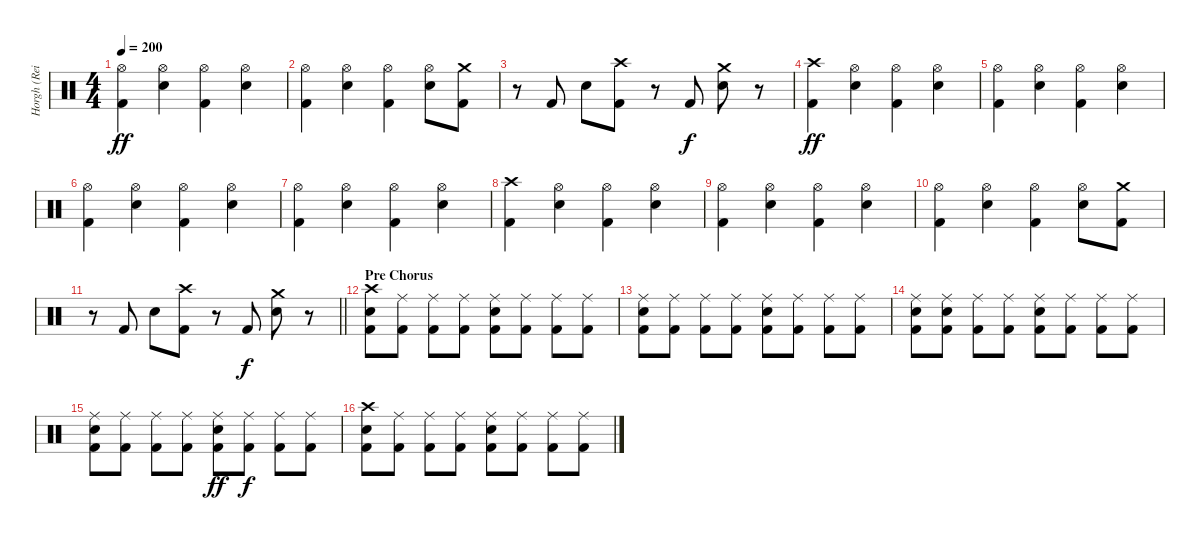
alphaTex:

\track ("Horgh (Reidar Horghagen)" "Horgh (Rei") {instrument percussion}
\staff {score}
\articulation defaults
\ts (4 4)
\tempo 200
\clef neutral
\ks c
("Hi-Hat (open)" "Kick (hit) 2").4{dy ff} ("Hi-Hat (open)" "Snare (hit) 2").4 ("Hi-Hat (open)" "Kick (hit) 2").4 ("Hi-Hat (open)" "Snare (hit) 2").4 |
("Hi-Hat (open)" "Kick (hit) 2").4 ("Hi-Hat (open)" "Snare (hit) 2").4 ("Hi-Hat (open)" "Kick (hit) 2").4 ("Hi-Hat (open)" "Snare (hit) 2").8 ("Crash medium (hit)" "Kick (hit) 2").8 |
r.8 "Kick (hit) 2".8 "Snare (hit) 2".8 ("Crash high (hit)" "Kick (hit) 2").8 r.8 "Kick (hit) 2".8{dy f} ("Crash medium (hit)" "Snare (hit) 2").8 r.8 |
("Crash high (hit)" "Kick (hit) 2").4{dy ff} ("Hi-Hat (open)" "Snare (hit) 2").4 ("Hi-Hat (open)" "Kick (hit) 2").4 ("Hi-Hat (open)" "Snare (hit) 2").4 |
("Hi-Hat (open)" "Kick (hit) 2").4 ("Hi-Hat (open)" "Snare (hit) 2").4 ("Hi-Hat (open)" "Kick (hit) 2").4 ("Hi-Hat (open)" "Snare (hit) 2").4 |
("Hi-Hat (open)" "Kick (hit) 2").4 ("Hi-Hat (open)" "Snare (hit) 2").4 ("Hi-Hat (open)" "Kick (hit) 2").4 ("Hi-Hat (open)" "Snare (hit) 2").4 |
("Hi-Hat (open)" "Kick (hit) 2").4 ("Hi-Hat (open)" "Snare (hit) 2").4 ("Hi-Hat (open)" "Kick (hit) 2").4 ("Hi-Hat (open)" "Snare (hit) 2").4 |
("Crash high (hit)" "Kick (hit) 2").4 ("Hi-Hat (open)" "Snare (hit) 2").4 ("Hi-Hat (open)" "Kick (hit) 2").4 ("Hi-Hat (open)" "Snare (hit) 2").4 |
("Hi-Hat (open)" "Kick (hit) 2").4 ("Hi-Hat (open)" "Snare (hit) 2").4 ("Hi-Hat (open)" "Kick (hit) 2").4 ("Hi-Hat (open)" "Snare (hit) 2").4 |
("Hi-Hat (open)" "Kick (hit) 2").4 ("Hi-Hat (open)" "Snare (hit) 2").4 ("Hi-Hat (open)" "Kick (hit) 2").4 ("Hi-Hat (open)" "Snare (hit) 2").8 ("Crash medium (hit)" "Kick (hit) 2").8 |
\barLineRight lightlight
r.8 "Kick (hit) 2".8 "Snare (hit) 2".8 ("Crash high (hit)" "Kick (hit) 2").8 r.8 "Kick (hit) 2".8{dy f} ("Crash medium (hit)" "Snare (hit) 2").8 r.8 |
\section ("" "Pre Chorus")
("Crash high (hit)" "Snare (hit) 2" "Kick (hit) 2").8 ("Ride (middle)" "Kick (hit) 2").8 ("Ride (middle)" "Kick (hit) 2").8 ("Ride (middle)" "Kick (hit) 2").8 ("Ride (middle)" "Snare (hit) 2" "Kick (hit) 2").8 ("Ride (middle)" "Kick (hit) 2").8 ("Ride (middle)" "Kick (hit) 2").8 ("Ride (middle)" "Kick (hit) 2").8 |
("Ride (middle)" "Snare (hit) 2" "Kick (hit) 2").8 ("Ride (middle)" "Kick (hit) 2").8 ("Ride (middle)" "Kick (hit) 2").8 ("Ride (middle)" "Kick (hit) 2").8 ("Ride (middle)" "Snare (hit) 2" "Kick (hit) 2").8 ("Ride (middle)" "Kick (hit) 2").8 ("Ride (middle)" "Kick (hit) 2").8 ("Ride (middle)" "Kick (hit) 2").8 |
("Ride (middle)" "Snare (hit) 2" "Kick (hit) 2").8 ("Ride (middle)" "Snare (hit) 2" "Kick (hit) 2").8 ("Ride (middle)" "Kick (hit) 2").8 ("Ride (middle)" "Kick (hit) 2").8 ("Ride (middle)" "Snare (hit) 2" "Kick (hit) 2").8 ("Ride (middle)" "Kick (hit) 2").8 ("Ride (middle)" "Kick (hit) 2").8 ("Ride (middle)" "Kick (hit) 2").8 |
("Ride (middle)" "Snare (hit) 2" "Kick (hit) 2").8 ("Ride (middle)" "Kick (hit) 2").8 ("Ride (middle)" "Kick (hit) 2").8 ("Ride (middle)" "Kick (hit) 2").8 ("Ride (middle)" "Snare (hit) 2" "Kick (hit) 2").8{dy ff} ("Ride (middle)" "Kick (hit) 2").8{dy f} ("Ride (middle)" "Kick (hit) 2").8 ("Ride (middle)" "Kick (hit) 2").8 |
("Crash high (hit)" "Snare (hit) 2" "Kick (hit) 2").8 ("Ride (middle)" "Kick (hit) 2").8 ("Ride (middle)" "Kick (hit) 2").8 ("Ride (middle)" "Kick (hit) 2").8 ("Ride (middle)" "Snare (hit) 2" "Kick (hit) 2").8 ("Ride (middle)" "Kick (hit) 2").8 ("Ride (middle)" "Kick (hit) 2").8 ("Ride (middle)" "Kick (hit) 2").8
